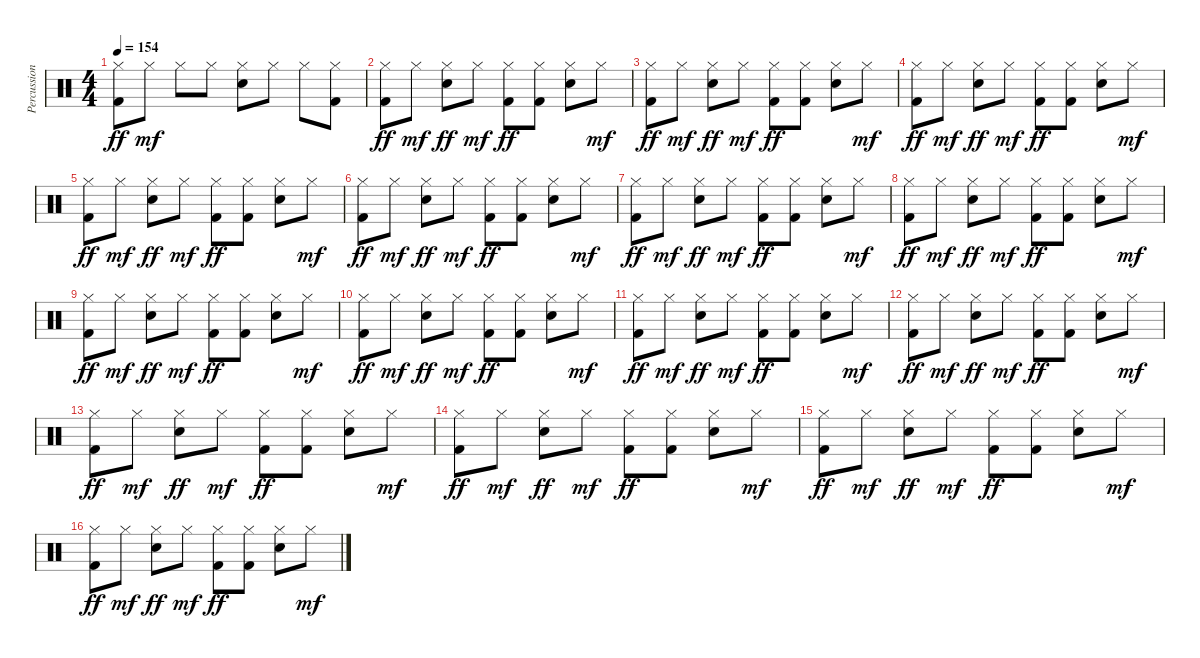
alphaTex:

\track ("Percussions" "Percussion") {instrument percussion}
\staff {score}
\articulation defaults
\ts (4 4)
\tempo 154
\clef neutral
\ks c
("Hi-Hat (closed)" "Kick (hit) 2").8{dy ff} "Hi-Hat (closed)".8{dy mf} "Hi-Hat (closed)".8 "Hi-Hat (closed)".8 ("Hi-Hat (closed)" "Electric Snare (hit)").8 "Hi-Hat (closed)".8 "Hi-Hat (closed)".8 ("Hi-Hat (closed)" "Kick (hit) 2").8 |
("Hi-Hat (closed)" "Kick (hit) 2").8{dy ff volume 12} "Hi-Hat (closed)".8{dy mf} ("Hi-Hat (closed)" "Electric Snare (hit)").8{dy ff} "Hi-Hat (closed)".8{dy mf} ("Hi-Hat (closed)" "Kick (hit) 2").8{dy ff} ("Hi-Hat (closed)" "Kick (hit) 2").8 ("Hi-Hat (closed)" "Electric Snare (hit)").8 "Hi-Hat (closed)".8{dy mf} |
("Hi-Hat (closed)" "Kick (hit) 2").8{dy ff} "Hi-Hat (closed)".8{dy mf} ("Hi-Hat (closed)" "Electric Snare (hit)").8{dy ff} "Hi-Hat (closed)".8{dy mf} ("Hi-Hat (closed)" "Kick (hit) 2").8{dy ff} ("Hi-Hat (closed)" "Kick (hit) 2").8 ("Hi-Hat (closed)" "Electric Snare (hit)").8 "Hi-Hat (closed)".8{dy mf} |
("Hi-Hat (closed)" "Kick (hit) 2").8{dy ff} "Hi-Hat (closed)".8{dy mf} ("Hi-Hat (closed)" "Electric Snare (hit)").8{dy ff} "Hi-Hat (closed)".8{dy mf} ("Hi-Hat (closed)" "Kick (hit) 2").8{dy ff} ("Hi-Hat (closed)" "Kick (hit) 2").8 ("Hi-Hat (closed)" "Electric Snare (hit)").8 "Hi-Hat (closed)".8{dy mf} |
("Hi-Hat (closed)" "Kick (hit) 2").8{dy ff} "Hi-Hat (closed)".8{dy mf} ("Hi-Hat (closed)" "Electric Snare (hit)").8{dy ff} "Hi-Hat (closed)".8{dy mf} ("Hi-Hat (closed)" "Kick (hit) 2").8{dy ff} ("Hi-Hat (closed)" "Kick (hit) 2").8 ("Hi-Hat (closed)" "Electric Snare (hit)").8 "Hi-Hat (closed)".8{dy mf} |
("Hi-Hat (closed)" "Kick (hit) 2").8{dy ff} "Hi-Hat (closed)".8{dy mf} ("Hi-Hat (closed)" "Electric Snare (hit)").8{dy ff} "Hi-Hat (closed)".8{dy mf} ("Hi-Hat (closed)" "Kick (hit) 2").8{dy ff} ("Hi-Hat (closed)" "Kick (hit) 2").8 ("Hi-Hat (closed)" "Electric Snare (hit)").8 "Hi-Hat (closed)".8{dy mf} |
("Hi-Hat (closed)" "Kick (hit) 2").8{dy ff} "Hi-Hat (closed)".8{dy mf} ("Hi-Hat (closed)" "Electric Snare (hit)").8{dy ff} "Hi-Hat (closed)".8{dy mf} ("Hi-Hat (closed)" "Kick (hit) 2").8{dy ff} ("Hi-Hat (closed)" "Kick (hit) 2").8 ("Hi-Hat (closed)" "Electric Snare (hit)").8 "Hi-Hat (closed)".8{dy mf} |
("Hi-Hat (closed)" "Kick (hit) 2").8{dy ff} "Hi-Hat (closed)".8{dy mf} ("Hi-Hat (closed)" "Electric Snare (hit)").8{dy ff} "Hi-Hat (closed)".8{dy mf} ("Hi-Hat (closed)" "Kick (hit) 2").8{dy ff} ("Hi-Hat (closed)" "Kick (hit) 2").8 ("Hi-Hat (closed)" "Electric Snare (hit)").8 "Hi-Hat (closed)".8{dy mf} |
("Hi-Hat (closed)" "Kick (hit) 2").8{dy ff} "Hi-Hat (closed)".8{dy mf} ("Hi-Hat (closed)" "Electric Snare (hit)").8{dy ff} "Hi-Hat (closed)".8{dy mf} ("Hi-Hat (closed)" "Kick (hit) 2").8{dy ff} ("Hi-Hat (closed)" "Kick (hit) 2").8 ("Hi-Hat (closed)" "Electric Snare (hit)").8 "Hi-Hat (closed)".8{dy mf} |
("Hi-Hat (closed)" "Kick (hit) 2").8{dy ff} "Hi-Hat (closed)".8{dy mf} ("Hi-Hat (closed)" "Electric Snare (hit)").8{dy ff} "Hi-Hat (closed)".8{dy mf} ("Hi-Hat (closed)" "Kick (hit) 2").8{dy ff} ("Hi-Hat (closed)" "Kick (hit) 2").8 ("Hi-Hat (closed)" "Electric Snare (hit)").8 "Hi-Hat (closed)".8{dy mf} |
("Hi-Hat (closed)" "Kick (hit) 2").8{dy ff} "Hi-Hat (closed)".8{dy mf} ("Hi-Hat (closed)" "Electric Snare (hit)").8{dy ff} "Hi-Hat (closed)".8{dy mf} ("Hi-Hat (closed)" "Kick (hit) 2").8{dy ff} ("Hi-Hat (closed)" "Kick (hit) 2").8 ("Hi-Hat (closed)" "Electric Snare (hit)").8 "Hi-Hat (closed)".8{dy mf} |
("Hi-Hat (closed)" "Kick (hit) 2").8{dy ff} "Hi-Hat (closed)".8{dy mf} ("Hi-Hat (closed)" "Electric Snare (hit)").8{dy ff} "Hi-Hat (closed)".8{dy mf} ("Hi-Hat (closed)" "Kick (hit) 2").8{dy ff} ("Hi-Hat (closed)" "Kick (hit) 2").8 ("Hi-Hat (closed)" "Electric Snare (hit)").8 "Hi-Hat (closed)".8{dy mf} |
("Hi-Hat (closed)" "Kick (hit) 2").8{dy ff} "Hi-Hat (closed)".8{dy mf} ("Hi-Hat (closed)" "Electric Snare (hit)").8{dy ff} "Hi-Hat (closed)".8{dy mf} ("Hi-Hat (closed)" "Kick (hit) 2").8{dy ff} ("Hi-Hat (closed)" "Kick (hit) 2").8 ("Hi-Hat (closed)" "Electric Snare (hit)").8 "Hi-Hat (closed)".8{dy mf} |
("Hi-Hat (closed)" "Kick (hit) 2").8{dy ff} "Hi-Hat (closed)".8{dy mf} ("Hi-Hat (closed)" "Electric Snare (hit)").8{dy ff} "Hi-Hat (closed)".8{dy mf} ("Hi-Hat (closed)" "Kick (hit) 2").8{dy ff} ("Hi-Hat (closed)" "Kick (hit) 2").8 ("Hi-Hat (closed)" "Electric Snare (hit)").8 "Hi-Hat (closed)".8{dy mf} |
("Hi-Hat (closed)" "Kick (hit) 2").8{dy ff} "Hi-Hat (closed)".8{dy mf} ("Hi-Hat (closed)" "Electric Snare (hit)").8{dy ff} "Hi-Hat (closed)".8{dy mf} ("Hi-Hat (closed)" "Kick (hit) 2").8{dy ff} ("Hi-Hat (closed)" "Kick (hit) 2").8 ("Hi-Hat (closed)" "Electric Snare (hit)").8 "Hi-Hat (closed)".8{dy mf} |
("Hi-Hat (closed)" "Kick (hit) 2").8{dy ff} "Hi-Hat (closed)".8{dy mf} ("Hi-Hat (closed)" "Electric Snare (hit)").8{dy ff} "Hi-Hat (closed)".8{dy mf} ("Hi-Hat (closed)" "Kick (hit) 2").8{dy ff} ("Hi-Hat (closed)" "Kick (hit) 2").8 ("Hi-Hat (closed)" "Electric Snare (hit)").8 "Hi-Hat (closed)".8{dy mf}
